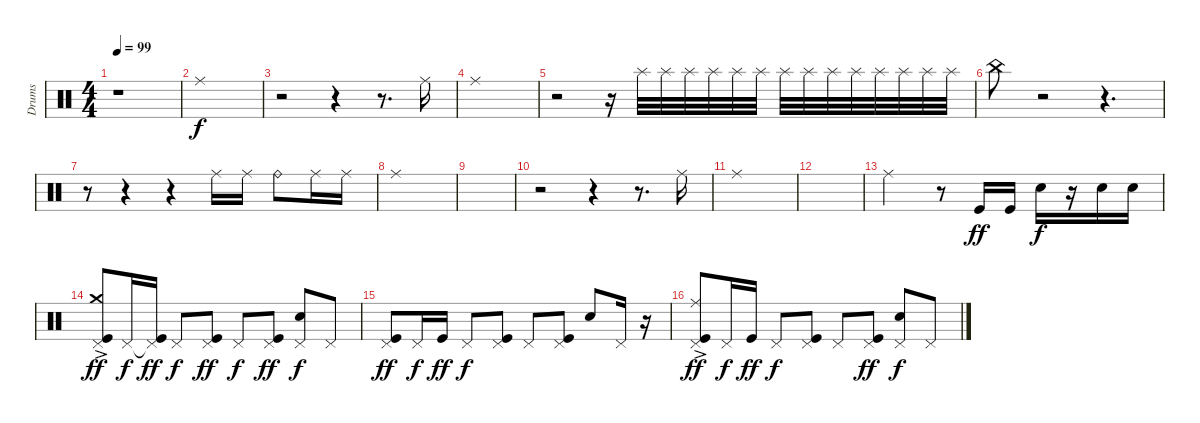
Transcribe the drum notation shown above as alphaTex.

\track ("Drums" "Drums") {instrument percussion}
\staff {score}
\articulation defaults
\ts (4 4)
\tempo 99
\clef neutral
\ks c
r.1{dy f} |
"Ride (middle)".1 |
r.2 r.4 r.8{d} "Ride (middle)".16 |
"Ride (middle)".1 |
r.2{volume 1} r.16 "Splash (hit)".32{volume 12} "Splash (hit)".32 "Splash (hit)".32 "Splash (hit)".32 "Splash (hit)".32 "Splash (hit)".32 "Splash (hit)".32 "Splash (hit)".32 "Splash (hit)".32 "Splash (hit)".32 "Splash (hit)".32 "Splash (hit)".32 "Splash (hit)".32 "Splash (hit)".32 |
"China (hit)".8 r.2 r.4{d} |
r.8 r.4 r.4 "Ride (middle)".16 "Ride (middle)".16 "Ride (bell)".8 "Ride (middle)".16 "Ride (middle)".16 |
"Ride (middle)".1 |
|
r.2 r.4 r.8{d} "Ride (middle)".16 |
"Ride (middle)".1 |
|
"Ride (middle)".2 r.8 "Kick (hit)".16{dy ff} "Kick (hit)".16 "Electric Snare (hit)".16{dy f} r.16 "Electric Snare (hit)".16 "Electric Snare (hit)".16 |
("Crash medium (hit)" "Pedal Hi-Hat (hit)"{ac} "Kick (hit)").8{dy ff} "Pedal Hi-Hat (hit)".16{dy f} ("Pedal Hi-Hat (hit)"{t} "Kick (hit)").16{dy ff} "Pedal Hi-Hat (hit)".8{dy f} ("Pedal Hi-Hat (hit)" "Kick (hit)").8{dy ff} "Pedal Hi-Hat (hit)".8{dy f} ("Pedal Hi-Hat (hit)" "Kick (hit)").8{dy ff} ("Pedal Hi-Hat (hit)" "Electric Snare (hit)").8{dy f} "Pedal Hi-Hat (hit)".8 |
("Pedal Hi-Hat (hit)" "Kick (hit)").8{dy ff} "Pedal Hi-Hat (hit)".16{dy f} "Kick (hit)".16{dy ff} "Pedal Hi-Hat (hit)".8{dy f} ("Pedal Hi-Hat (hit)" "Kick (hit)").8 "Pedal Hi-Hat (hit)".8 ("Pedal Hi-Hat (hit)" "Kick (hit)").8 "Electric Snare (hit)".8 "Pedal Hi-Hat (hit)".16 r.16 |
("Ride (middle)" "Pedal Hi-Hat (hit)"{ac} "Kick (hit)").8{dy ff} "Pedal Hi-Hat (hit)".16{dy f} "Kick (hit)".16{dy ff} "Pedal Hi-Hat (hit)".8{dy f} ("Pedal Hi-Hat (hit)" "Kick (hit)").8 "Pedal Hi-Hat (hit)".8 ("Pedal Hi-Hat (hit)" "Kick (hit)").8{dy ff} ("Pedal Hi-Hat (hit)" "Electric Snare (hit)").8{dy f} "Pedal Hi-Hat (hit)".8
